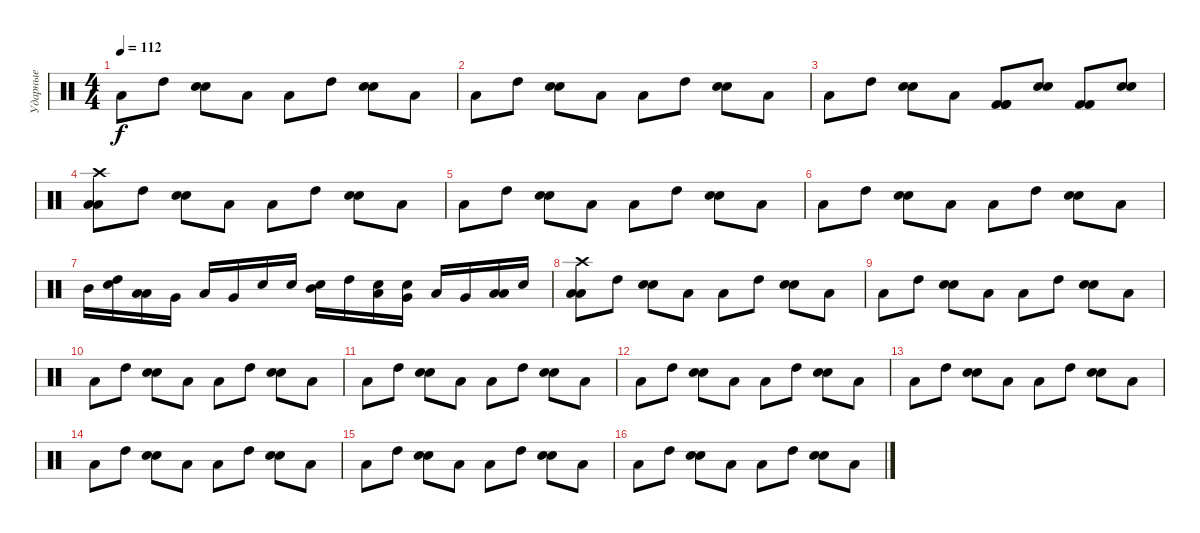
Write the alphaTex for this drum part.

\track ("Ударные" "Ударные") {instrument percussion}
\staff {score}
\articulation defaults
\ts (4 4)
\tempo 112
\clef neutral
\ks c "Low Tom (hit)".8{dy f} "High Tom (hit)".8
("Snare (hit) 2" "Snare (hit) 2").8 "Low Tom (hit)".8 "Low Tom (hit)".8 "High Tom (hit)".8 ("Snare (hit) 2" "Snare (hit) 2").8 "Low Tom (hit)".8 |
"Low Tom (hit)".8 "High Tom (hit)".8 ("Snare (hit) 2" "Snare (hit) 2").8 "Low Tom (hit)".8 "Low Tom (hit)".8 "High Tom (hit)".8 ("Snare (hit) 2" "Snare (hit) 2").8 "Low Tom (hit)".8 |
"Low Tom (hit)".8 "High Tom (hit)".8 ("Snare (hit) 2" "Snare (hit) 2").8 "Low Tom (hit)".8 ("Kick (hit) 2" "Kick (hit) 2" "Kick (hit) 2").8 ("Snare (hit)" "Snare (hit)").8 ("Kick (hit) 2" "Kick (hit) 2").8 ("Snare (hit)" "Snare (hit)").8 |
("Crash high (hit)" "Low Tom (hit)" "Low Tom (hit)").8 "High Tom (hit)".8 ("Snare (hit) 2" "Snare (hit) 2").8 "Low Tom (hit)".8 "Low Tom (hit)".8 "High Tom (hit)".8 ("Snare (hit) 2" "Snare (hit) 2").8 "Low Tom (hit)".8 |
"Low Tom (hit)".8 "High Tom (hit)".8 ("Snare (hit) 2" "Snare (hit) 2").8 "Low Tom (hit)".8 "Low Tom (hit)".8 "High Tom (hit)".8 ("Snare (hit) 2" "Snare (hit) 2").8 "Low Tom (hit)".8 |
"Low Tom (hit)".8 "High Tom (hit)".8 ("Snare (hit) 2" "Snare (hit) 2").8 "Low Tom (hit)".8 "Low Tom (hit)".8 "High Tom (hit)".8 ("Snare (hit) 2" "Snare (hit) 2").8 "Low Tom (hit)".8 |
"Mid Tom (hit)".16 ("High Tom (hit)" "Snare (hit)").16 ("Low Tom (hit)" "Low Tom (hit)").16 "Very Low Tom (hit)".16 "Low Floor Tom (hit)".16 "Very Low Tom (hit)".16 "Snare (hit)".16 "Snare (hit)".16 ("Snare (hit)" "Mid Tom (hit)").16 "High Tom (hit)".16 ("Snare (hit)" "Low Tom (hit)").16 ("Very Low Tom (hit)" "Snare (hit)").16 "Low Floor Tom (hit)".16 "Very Low Tom (hit)".16 ("Low Tom (hit)" "Low Tom (hit)").16 "Snare (hit)".16 |
("Crash high (hit)" "Low Tom (hit)" "Low Tom (hit)").8 "High Tom (hit)".8 ("Snare (hit) 2" "Snare (hit) 2").8 "Low Tom (hit)".8 "Low Tom (hit)".8 "High Tom (hit)".8 ("Snare (hit) 2" "Snare (hit) 2").8 "Low Tom (hit)".8 |
"Low Tom (hit)".8 "High Tom (hit)".8 ("Snare (hit) 2" "Snare (hit) 2").8 "Low Tom (hit)".8 "Low Tom (hit)".8 "High Tom (hit)".8 ("Snare (hit) 2" "Snare (hit) 2").8 "Low Tom (hit)".8 |
"Low Tom (hit)".8 "High Tom (hit)".8 ("Snare (hit) 2" "Snare (hit) 2").8 "Low Tom (hit)".8 "Low Tom (hit)".8 "High Tom (hit)".8 ("Snare (hit) 2" "Snare (hit) 2").8 "Low Tom (hit)".8 |
"Low Tom (hit)".8 "High Tom (hit)".8 ("Snare (hit) 2" "Snare (hit) 2").8 "Low Tom (hit)".8 "Low Tom (hit)".8 "High Tom (hit)".8 ("Snare (hit) 2" "Snare (hit) 2").8 "Low Tom (hit)".8 |
"Low Tom (hit)".8 "High Tom (hit)".8 ("Snare (hit) 2" "Snare (hit) 2").8 "Low Tom (hit)".8 "Low Tom (hit)".8 "High Tom (hit)".8 ("Snare (hit) 2" "Snare (hit) 2").8 "Low Tom (hit)".8 |
"Low Tom (hit)".8 "High Tom (hit)".8 ("Snare (hit) 2" "Snare (hit) 2").8 "Low Tom (hit)".8 "Low Tom (hit)".8 "High Tom (hit)".8 ("Snare (hit) 2" "Snare (hit) 2").8 "Low Tom (hit)".8 |
"Low Tom (hit)".8 "High Tom (hit)".8 ("Snare (hit) 2" "Snare (hit) 2").8 "Low Tom (hit)".8 "Low Tom (hit)".8 "High Tom (hit)".8 ("Snare (hit) 2" "Snare (hit) 2").8 "Low Tom (hit)".8 |
"Low Tom (hit)".8 "High Tom (hit)".8 ("Snare (hit) 2" "Snare (hit) 2").8 "Low Tom (hit)".8 "Low Tom (hit)".8 "High Tom (hit)".8 ("Snare (hit) 2" "Snare (hit) 2").8 "Low Tom (hit)".8 |
"Low Tom (hit)".8 "High Tom (hit)".8 ("Snare (hit) 2" "Snare (hit) 2").8 "Low Tom (hit)".8 "Low Tom (hit)".8 "High Tom (hit)".8 ("Snare (hit) 2" "Snare (hit) 2").8 "Low Tom (hit)".8
